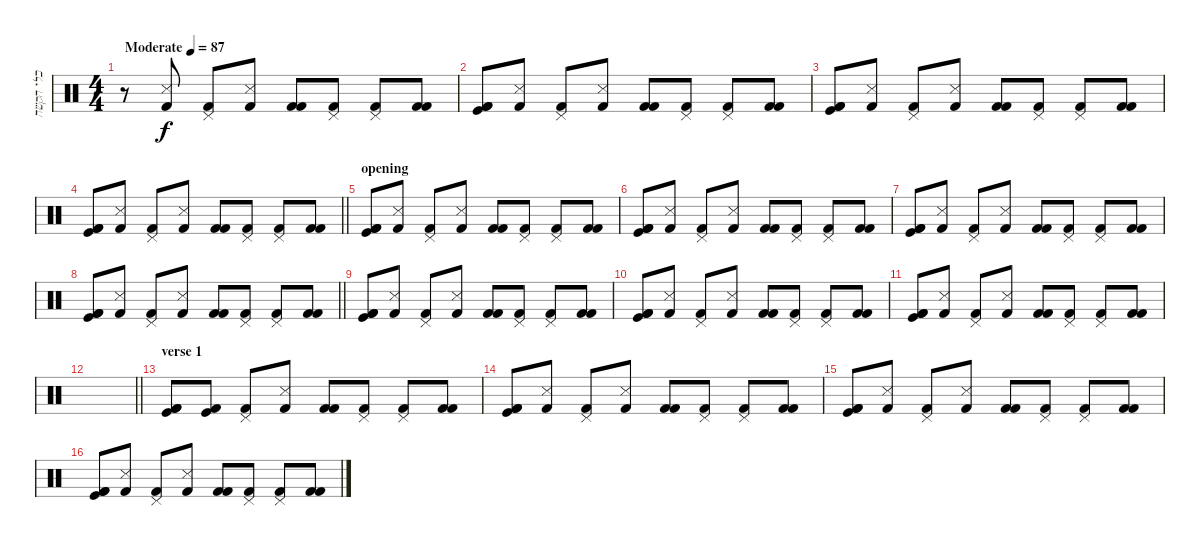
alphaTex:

\track ("כלי הקשה" "כלי הקשה") {instrument percussion}
\staff {score}
\articulation defaults
\ts (4 4)
\tempo (87 "Moderate")
\clef neutral
\ks c
r.8{dy f} ("Snare (side stick) 3" "Kick (hit) 2").8 ("Pedal Hi-Hat (hit)" "Kick (hit) 2").8 ("Snare (side stick) 3" "Kick (hit) 2").8 ("Kick (hit) 2" "Kick (hit) 2").8 ("Pedal Hi-Hat (hit)" "Kick (hit) 2").8 ("Pedal Hi-Hat (hit)" "Kick (hit) 2").8 ("Kick (hit) 2" "Kick (hit) 2").8 |
("Kick (hit) 2" "Kick (hit)" "Kick (hit) 2").8 ("Snare (side stick) 3" "Kick (hit) 2").8 ("Pedal Hi-Hat (hit)" "Kick (hit) 2").8 ("Snare (side stick) 3" "Kick (hit) 2").8 ("Kick (hit) 2" "Kick (hit) 2").8 ("Pedal Hi-Hat (hit)" "Kick (hit) 2").8 ("Pedal Hi-Hat (hit)" "Kick (hit) 2").8 ("Kick (hit) 2" "Kick (hit) 2").8 |
("Kick (hit) 2" "Kick (hit)" "Kick (hit) 2").8 ("Snare (side stick) 3" "Kick (hit) 2").8 ("Pedal Hi-Hat (hit)" "Kick (hit) 2").8 ("Snare (side stick) 3" "Kick (hit) 2").8 ("Kick (hit) 2" "Kick (hit) 2").8 ("Pedal Hi-Hat (hit)" "Kick (hit) 2").8 ("Pedal Hi-Hat (hit)" "Kick (hit) 2").8 ("Kick (hit) 2" "Kick (hit) 2").8 |
\barLineRight lightlight
("Kick (hit) 2" "Kick (hit)" "Kick (hit) 2").8 ("Snare (side stick) 3" "Kick (hit) 2").8 ("Pedal Hi-Hat (hit)" "Kick (hit) 2").8 ("Snare (side stick) 3" "Kick (hit) 2").8 ("Kick (hit) 2" "Kick (hit) 2").8 ("Pedal Hi-Hat (hit)" "Kick (hit) 2").8 ("Pedal Hi-Hat (hit)" "Kick (hit) 2").8 ("Kick (hit) 2" "Kick (hit) 2").8 |
\section ("" "opening")
("Kick (hit) 2" "Kick (hit)" "Kick (hit) 2").8 ("Snare (side stick) 3" "Kick (hit) 2").8 ("Pedal Hi-Hat (hit)" "Kick (hit) 2").8 ("Snare (side stick) 3" "Kick (hit) 2").8 ("Kick (hit) 2" "Kick (hit) 2").8 ("Pedal Hi-Hat (hit)" "Kick (hit) 2").8 ("Pedal Hi-Hat (hit)" "Kick (hit) 2").8 ("Kick (hit) 2" "Kick (hit) 2").8 |
("Kick (hit) 2" "Kick (hit)" "Kick (hit) 2").8 ("Snare (side stick) 3" "Kick (hit) 2").8 ("Pedal Hi-Hat (hit)" "Kick (hit) 2").8 ("Snare (side stick) 3" "Kick (hit) 2").8 ("Kick (hit) 2" "Kick (hit) 2").8 ("Pedal Hi-Hat (hit)" "Kick (hit) 2").8 ("Pedal Hi-Hat (hit)" "Kick (hit) 2").8 ("Kick (hit) 2" "Kick (hit) 2").8 |
("Kick (hit) 2" "Kick (hit)" "Kick (hit) 2").8 ("Snare (side stick) 3" "Kick (hit) 2").8 ("Pedal Hi-Hat (hit)" "Kick (hit) 2").8 ("Snare (side stick) 3" "Kick (hit) 2").8 ("Kick (hit) 2" "Kick (hit) 2").8 ("Pedal Hi-Hat (hit)" "Kick (hit) 2").8 ("Pedal Hi-Hat (hit)" "Kick (hit) 2").8 ("Kick (hit) 2" "Kick (hit) 2").8 |
\barLineRight lightlight
("Kick (hit) 2" "Kick (hit)" "Kick (hit) 2").8 ("Snare (side stick) 3" "Kick (hit) 2").8 ("Pedal Hi-Hat (hit)" "Kick (hit) 2").8 ("Snare (side stick) 3" "Kick (hit) 2").8 ("Kick (hit) 2" "Kick (hit) 2").8 ("Pedal Hi-Hat (hit)" "Kick (hit) 2").8 ("Pedal Hi-Hat (hit)" "Kick (hit) 2").8 ("Kick (hit) 2" "Kick (hit) 2").8 |
\section ("" "")
("Kick (hit) 2" "Kick (hit)" "Kick (hit) 2").8 ("Snare (side stick) 3" "Kick (hit) 2").8 ("Pedal Hi-Hat (hit)" "Kick (hit) 2").8 ("Snare (side stick) 3" "Kick (hit) 2").8 ("Kick (hit) 2" "Kick (hit) 2").8 ("Pedal Hi-Hat (hit)" "Kick (hit) 2").8 ("Pedal Hi-Hat (hit)" "Kick (hit) 2").8 ("Kick (hit) 2" "Kick (hit) 2").8 |
("Kick (hit) 2" "Kick (hit)" "Kick (hit) 2").8 ("Snare (side stick) 3" "Kick (hit) 2").8 ("Pedal Hi-Hat (hit)" "Kick (hit) 2").8 ("Snare (side stick) 3" "Kick (hit) 2").8 ("Kick (hit) 2" "Kick (hit) 2").8 ("Pedal Hi-Hat (hit)" "Kick (hit) 2").8 ("Pedal Hi-Hat (hit)" "Kick (hit) 2").8 ("Kick (hit) 2" "Kick (hit) 2").8 |
("Kick (hit) 2" "Kick (hit)" "Kick (hit) 2").8 ("Snare (side stick) 3" "Kick (hit) 2").8 ("Pedal Hi-Hat (hit)" "Kick (hit) 2").8 ("Snare (side stick) 3" "Kick (hit) 2").8 ("Kick (hit) 2" "Kick (hit) 2").8 ("Pedal Hi-Hat (hit)" "Kick (hit) 2").8 ("Pedal Hi-Hat (hit)" "Kick (hit) 2").8 ("Kick (hit) 2" "Kick (hit) 2").8 |
\barLineRight lightlight
|
\section ("" "verse 1")
("Kick (hit) 2" "Kick (hit)" "Kick (hit) 2").8 ("Kick (hit)" "Kick (hit) 2").8 ("Pedal Hi-Hat (hit)" "Kick (hit) 2").8 ("Snare (side stick) 3" "Kick (hit) 2").8 ("Kick (hit) 2" "Kick (hit) 2").8 ("Pedal Hi-Hat (hit)" "Kick (hit) 2").8 ("Pedal Hi-Hat (hit)" "Kick (hit) 2").8 ("Kick (hit) 2" "Kick (hit) 2").8 |
("Kick (hit) 2" "Kick (hit)" "Kick (hit) 2").8 ("Snare (side stick) 3" "Kick (hit) 2").8 ("Pedal Hi-Hat (hit)" "Kick (hit) 2").8 ("Snare (side stick) 3" "Kick (hit) 2").8 ("Kick (hit) 2" "Kick (hit) 2").8 ("Pedal Hi-Hat (hit)" "Kick (hit) 2").8 ("Pedal Hi-Hat (hit)" "Kick (hit) 2").8 ("Kick (hit) 2" "Kick (hit) 2").8 |
("Kick (hit) 2" "Kick (hit)" "Kick (hit) 2").8 ("Snare (side stick) 3" "Kick (hit) 2").8 ("Pedal Hi-Hat (hit)" "Kick (hit) 2").8 ("Snare (side stick) 3" "Kick (hit) 2").8 ("Kick (hit) 2" "Kick (hit) 2").8 ("Pedal Hi-Hat (hit)" "Kick (hit) 2").8 ("Pedal Hi-Hat (hit)" "Kick (hit) 2").8 ("Kick (hit) 2" "Kick (hit) 2").8 |
("Kick (hit) 2" "Kick (hit)" "Kick (hit) 2").8 ("Snare (side stick) 3" "Kick (hit) 2").8 ("Pedal Hi-Hat (hit)" "Kick (hit) 2").8 ("Snare (side stick) 3" "Kick (hit) 2").8 ("Kick (hit) 2" "Kick (hit) 2").8 ("Pedal Hi-Hat (hit)" "Kick (hit) 2").8 ("Pedal Hi-Hat (hit)" "Kick (hit) 2").8 ("Kick (hit) 2" "Kick (hit) 2").8
